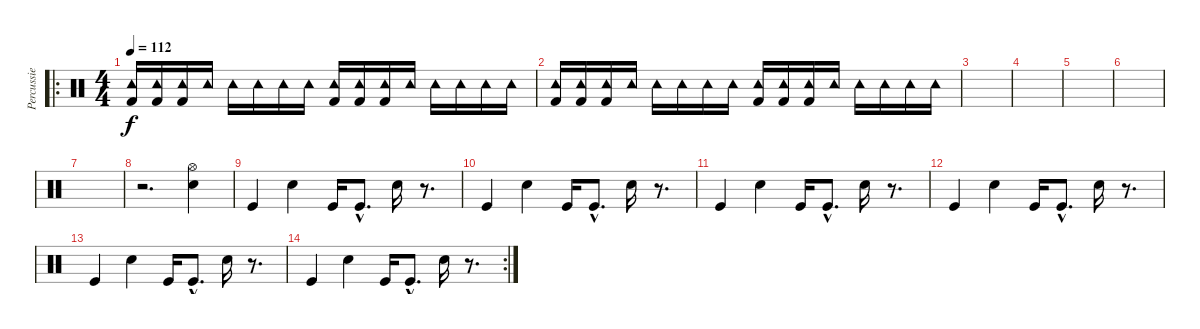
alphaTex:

\track ("Percussie" "Percussie") {instrument percussion}
\staff {score}
\articulation defaults
\ro
\ts (4 4)
\tempo 112
\clef neutral
\ks c
("Kick (hit) 2" "Tambourine (hit)").16{dy f} ("Kick (hit) 2" "Tambourine (hit)").16 ("Kick (hit) 2" "Tambourine (hit)").16 "Tambourine (hit)".16 "Tambourine (hit)".16 "Tambourine (hit)".16 "Tambourine (hit)".16 "Tambourine (hit)".16 ("Kick (hit) 2" "Tambourine (hit)").16 ("Kick (hit) 2" "Tambourine (hit)").16 ("Kick (hit) 2" "Tambourine (hit)").16 "Tambourine (hit)".16 "Tambourine (hit)".16 "Tambourine (hit)".16 "Tambourine (hit)".16 "Tambourine (hit)".16 |
("Kick (hit) 2" "Tambourine (hit)").16 ("Kick (hit) 2" "Tambourine (hit)").16 ("Kick (hit) 2" "Tambourine (hit)").16 "Tambourine (hit)".16 "Tambourine (hit)".16 "Tambourine (hit)".16 "Tambourine (hit)".16 "Tambourine (hit)".16 ("Kick (hit) 2" "Tambourine (hit)").16 ("Kick (hit) 2" "Tambourine (hit)").16 ("Kick (hit) 2" "Tambourine (hit)").16 "Tambourine (hit)".16 "Tambourine (hit)".16 "Tambourine (hit)".16 "Tambourine (hit)".16 "Tambourine (hit)".16 |
|
|
|
|
|
r.2{d} ("Hi-Hat (open)" "Snare (hit) 2").4 |
"Kick (hit)".4 "Snare (hit) 2".4 "Kick (hit)".16 "Kick (hit)"{hac}.8{d} "Snare (hit) 2".16 r.8{d} |
"Kick (hit)".4 "Snare (hit) 2".4 "Kick (hit)".16 "Kick (hit)"{hac}.8{d} "Snare (hit) 2".16 r.8{d} |
"Kick (hit)".4 "Snare (hit) 2".4 "Kick (hit)".16 "Kick (hit)"{hac}.8{d} "Snare (hit) 2".16 r.8{d} |
"Kick (hit)".4 "Snare (hit) 2".4 "Kick (hit)".16 "Kick (hit)"{hac}.8{d} "Snare (hit) 2".16 r.8{d} |
"Kick (hit)".4 "Snare (hit) 2".4 "Kick (hit)".16 "Kick (hit)"{hac}.8{d} "Snare (hit) 2".16 r.8{d} |
\rc 2 "Kick (hit)".4 "Snare (hit) 2".4 "Kick (hit)".16 "Kick (hit)"{hac}.8{d} "Snare (hit) 2".16
r.8{d}
